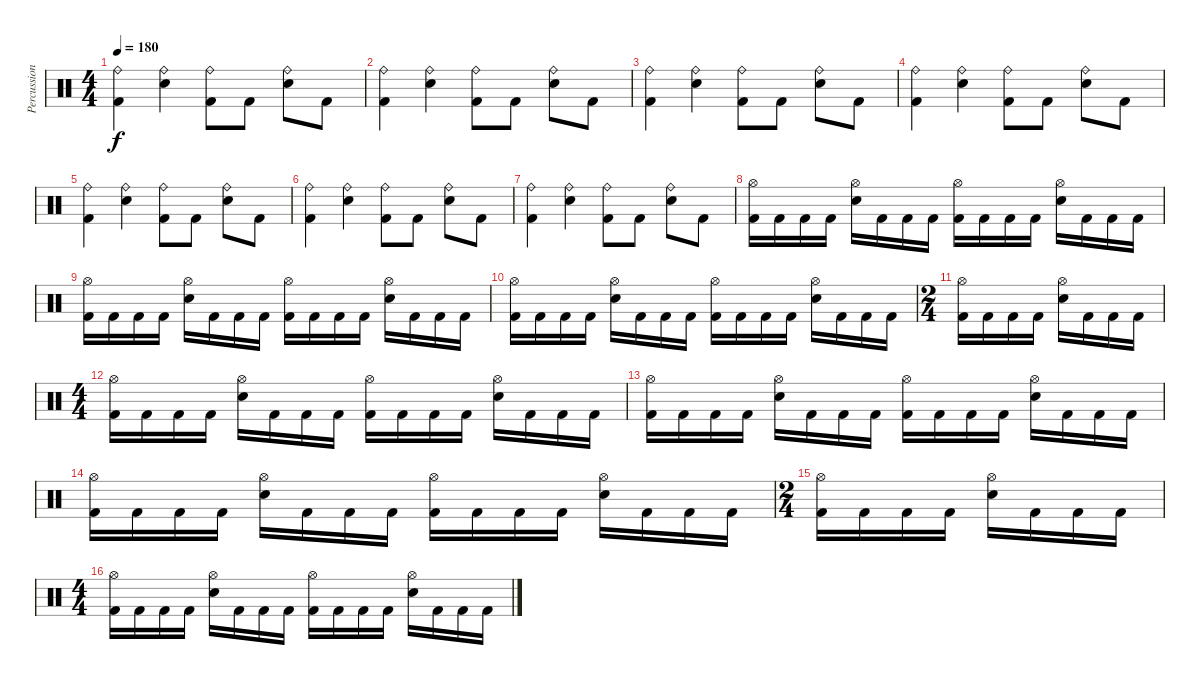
\track ("Percussion" "Percussion") {instrument percussion}
\staff {score}
\articulation defaults
\ts (4 4)
\tempo 180
\clef neutral
\ks c
("Kick (hit) 2" "Ride (bell)").4{dy f} ("Snare (hit) 2" "Ride (bell)").4 ("Kick (hit) 2" "Ride (bell)").8 "Kick (hit) 2".8 ("Snare (hit) 2" "Ride (bell)").8 "Kick (hit) 2".8 |
("Kick (hit) 2" "Ride (bell)").4 ("Snare (hit) 2" "Ride (bell)").4 ("Kick (hit) 2" "Ride (bell)").8 "Kick (hit) 2".8 ("Snare (hit) 2" "Ride (bell)").8 "Kick (hit) 2".8 |
("Kick (hit) 2" "Ride (bell)").4 ("Snare (hit) 2" "Ride (bell)").4 ("Kick (hit) 2" "Ride (bell)").8 "Kick (hit) 2".8 ("Snare (hit) 2" "Ride (bell)").8 "Kick (hit) 2".8 |
("Kick (hit) 2" "Ride (bell)").4 ("Snare (hit) 2" "Ride (bell)").4 ("Kick (hit) 2" "Ride (bell)").8 "Kick (hit) 2".8 ("Snare (hit) 2" "Ride (bell)").8 "Kick (hit) 2".8 |
("Kick (hit) 2" "Ride (bell)").4 ("Snare (hit) 2" "Ride (bell)").4 ("Kick (hit) 2" "Ride (bell)").8 "Kick (hit) 2".8 ("Snare (hit) 2" "Ride (bell)").8 "Kick (hit) 2".8 |
("Kick (hit) 2" "Ride (bell)").4 ("Snare (hit) 2" "Ride (bell)").4 ("Kick (hit) 2" "Ride (bell)").8 "Kick (hit) 2".8 ("Snare (hit) 2" "Ride (bell)").8 "Kick (hit) 2".8 |
("Kick (hit) 2" "Ride (bell)").4 ("Snare (hit) 2" "Ride (bell)").4 ("Kick (hit) 2" "Ride (bell)").8 "Kick (hit) 2".8 ("Snare (hit) 2" "Ride (bell)").8 "Kick (hit) 2".8 |
("Kick (hit) 2" "Hi-Hat (open)").16 "Kick (hit) 2".16 "Kick (hit) 2".16 "Kick (hit) 2".16 ("Snare (hit) 2" "Hi-Hat (open)").16 "Kick (hit) 2".16 "Kick (hit) 2".16 "Kick (hit) 2".16 ("Kick (hit) 2" "Hi-Hat (open)").16 "Kick (hit) 2".16 "Kick (hit) 2".16 "Kick (hit) 2".16 ("Snare (hit) 2" "Hi-Hat (open)").16 "Kick (hit) 2".16 "Kick (hit) 2".16 "Kick (hit) 2".16 |
("Kick (hit) 2" "Hi-Hat (open)").16 "Kick (hit) 2".16 "Kick (hit) 2".16 "Kick (hit) 2".16 ("Snare (hit) 2" "Hi-Hat (open)").16 "Kick (hit) 2".16 "Kick (hit) 2".16 "Kick (hit) 2".16 ("Kick (hit) 2" "Hi-Hat (open)").16 "Kick (hit) 2".16 "Kick (hit) 2".16 "Kick (hit) 2".16 ("Snare (hit) 2" "Hi-Hat (open)").16 "Kick (hit) 2".16 "Kick (hit) 2".16 "Kick (hit) 2".16 |
("Kick (hit) 2" "Hi-Hat (open)").16 "Kick (hit) 2".16 "Kick (hit) 2".16 "Kick (hit) 2".16 ("Snare (hit) 2" "Hi-Hat (open)").16 "Kick (hit) 2".16 "Kick (hit) 2".16 "Kick (hit) 2".16 ("Kick (hit) 2" "Hi-Hat (open)").16 "Kick (hit) 2".16 "Kick (hit) 2".16 "Kick (hit) 2".16 ("Snare (hit) 2" "Hi-Hat (open)").16 "Kick (hit) 2".16 "Kick (hit) 2".16 "Kick (hit) 2".16 |
\ts (2 4)
("Kick (hit) 2" "Hi-Hat (open)").16 "Kick (hit) 2".16 "Kick (hit) 2".16 "Kick (hit) 2".16 ("Snare (hit) 2" "Hi-Hat (open)").16 "Kick (hit) 2".16 "Kick (hit) 2".16 "Kick (hit) 2".16 |
\ts (4 4)
("Kick (hit) 2" "Hi-Hat (open)").16 "Kick (hit) 2".16 "Kick (hit) 2".16 "Kick (hit) 2".16 ("Snare (hit) 2" "Hi-Hat (open)").16 "Kick (hit) 2".16 "Kick (hit) 2".16 "Kick (hit) 2".16 ("Kick (hit) 2" "Hi-Hat (open)").16 "Kick (hit) 2".16 "Kick (hit) 2".16 "Kick (hit) 2".16 ("Snare (hit) 2" "Hi-Hat (open)").16 "Kick (hit) 2".16 "Kick (hit) 2".16 "Kick (hit) 2".16 |
("Kick (hit) 2" "Hi-Hat (open)").16 "Kick (hit) 2".16 "Kick (hit) 2".16 "Kick (hit) 2".16 ("Snare (hit) 2" "Hi-Hat (open)").16 "Kick (hit) 2".16 "Kick (hit) 2".16 "Kick (hit) 2".16 ("Kick (hit) 2" "Hi-Hat (open)").16 "Kick (hit) 2".16 "Kick (hit) 2".16 "Kick (hit) 2".16 ("Snare (hit) 2" "Hi-Hat (open)").16 "Kick (hit) 2".16 "Kick (hit) 2".16 "Kick (hit) 2".16 |
("Kick (hit) 2" "Hi-Hat (open)").16 "Kick (hit) 2".16 "Kick (hit) 2".16 "Kick (hit) 2".16 ("Snare (hit) 2" "Hi-Hat (open)").16 "Kick (hit) 2".16 "Kick (hit) 2".16 "Kick (hit) 2".16 ("Kick (hit) 2" "Hi-Hat (open)").16 "Kick (hit) 2".16 "Kick (hit) 2".16 "Kick (hit) 2".16 ("Snare (hit) 2" "Hi-Hat (open)").16 "Kick (hit) 2".16 "Kick (hit) 2".16 "Kick (hit) 2".16 |
\ts (2 4)
("Kick (hit) 2" "Hi-Hat (open)").16 "Kick (hit) 2".16 "Kick (hit) 2".16 "Kick (hit) 2".16 ("Snare (hit) 2" "Hi-Hat (open)").16 "Kick (hit) 2".16 "Kick (hit) 2".16 "Kick (hit) 2".16 |
\ts (4 4)
("Kick (hit) 2" "Hi-Hat (open)").16 "Kick (hit) 2".16 "Kick (hit) 2".16 "Kick (hit) 2".16 ("Snare (hit) 2" "Hi-Hat (open)").16 "Kick (hit) 2".16 "Kick (hit) 2".16 "Kick (hit) 2".16 ("Kick (hit) 2" "Hi-Hat (open)").16 "Kick (hit) 2".16 "Kick (hit) 2".16 "Kick (hit) 2".16 ("Snare (hit) 2" "Hi-Hat (open)").16 "Kick (hit) 2".16 "Kick (hit) 2".16 "Kick (hit) 2".16
